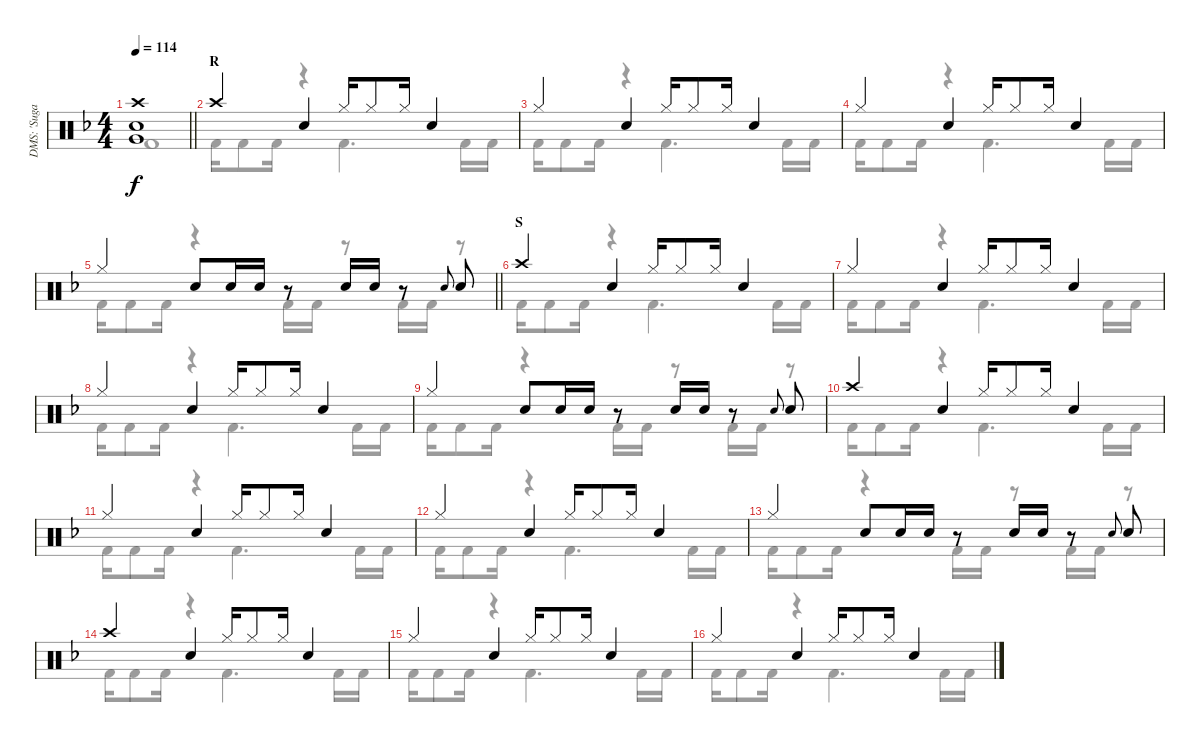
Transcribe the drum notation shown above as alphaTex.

\track ("DMS: 'Sugarfoot' Moffett" "DMS: 'Suga") {instrument percussion}
\staff {score}
\articulation defaults
\voice
\ts (4 4)
\tempo 114
\clef neutral
\barLineRight lightlight
\ks f
("Crash high (hit)" "Snare (hit) 2" "Very Low Tom (hit)").1{dy f} |
\section ("" "R")
"Crash high (hit)".4 "Snare (hit) 2".4 "Hi-Hat (closed)".16 "Hi-Hat (closed)".8 "Hi-Hat (closed)".16 "Snare (hit) 2".4 |
"Hi-Hat (closed)".4 "Snare (hit) 2".4 "Hi-Hat (closed)".16 "Hi-Hat (closed)".8 "Hi-Hat (closed)".16 "Snare (hit) 2".4 |
"Hi-Hat (closed)".4 "Snare (hit) 2".4 "Hi-Hat (closed)".16 "Hi-Hat (closed)".8 "Hi-Hat (closed)".16 "Snare (hit) 2".4 |
\barLineRight lightlight "Hi-Hat (closed)".4 "Snare (hit) 2".8 "Electric Snare (hit)".16 "Electric Snare (hit)".16
r.8 "Electric Snare (hit)".16 "Electric Snare (hit)".16 r.8 "Electric Snare (hit)".8{gr onbeat} "Snare (hit) 2".8 |
\section ("" "S")
"Crash high (hit)".4 "Snare (hit) 2".4 "Hi-Hat (closed)".16 "Hi-Hat (closed)".8 "Hi-Hat (closed)".16 "Snare (hit) 2".4 |
"Hi-Hat (closed)".4 "Snare (hit) 2".4 "Hi-Hat (closed)".16 "Hi-Hat (closed)".8 "Hi-Hat (closed)".16 "Snare (hit) 2".4 |
"Hi-Hat (closed)".4 "Snare (hit) 2".4 "Hi-Hat (closed)".16 "Hi-Hat (closed)".8 "Hi-Hat (closed)".16 "Snare (hit) 2".4 |
"Hi-Hat (closed)".4 "Snare (hit) 2".8 "Electric Snare (hit)".16 "Electric Snare (hit)".16 r.8 "Electric Snare (hit)".16 "Electric Snare (hit)".16 r.8 "Electric Snare (hit)".8{gr onbeat} "Snare (hit) 2".8 |
"Crash high (hit)".4 "Snare (hit) 2".4 "Hi-Hat (closed)".16 "Hi-Hat (closed)".8 "Hi-Hat (closed)".16 "Snare (hit) 2".4 |
"Hi-Hat (closed)".4 "Snare (hit) 2".4 "Hi-Hat (closed)".16 "Hi-Hat (closed)".8 "Hi-Hat (closed)".16 "Snare (hit) 2".4 |
"Hi-Hat (closed)".4 "Snare (hit) 2".4 "Hi-Hat (closed)".16 "Hi-Hat (closed)".8 "Hi-Hat (closed)".16 "Snare (hit) 2".4 |
"Hi-Hat (closed)".4 "Snare (hit) 2".8 "Electric Snare (hit)".16 "Electric Snare (hit)".16 r.8 "Electric Snare (hit)".16 "Electric Snare (hit)".16 r.8 "Electric Snare (hit)".8{gr onbeat} "Snare (hit) 2".8 |
"Crash high (hit)".4 "Snare (hit) 2".4 "Hi-Hat (closed)".16 "Hi-Hat (closed)".8 "Hi-Hat (closed)".16 "Snare (hit) 2".4 |
"Hi-Hat (closed)".4 "Snare (hit) 2".4 "Hi-Hat (closed)".16 "Hi-Hat (closed)".8 "Hi-Hat (closed)".16 "Snare (hit) 2".4 |
"Hi-Hat (closed)".4 "Snare (hit) 2".4 "Hi-Hat (closed)".16 "Hi-Hat (closed)".8 "Hi-Hat (closed)".16 "Snare (hit) 2".4
\voice
\clef neutral
\ottava regular
\simile none
\barLineRight lightlight
\ks f "Kick (hit) 2".1{dy f}
|
"Kick (hit) 2".16 "Kick (hit) 2".8 "Kick (hit) 2".16 r.4 "Kick (hit) 2".4{d} "Kick (hit) 2".16 "Kick (hit) 2".16 |
"Kick (hit) 2".16 "Kick (hit) 2".8 "Kick (hit) 2".16 r.4 "Kick (hit) 2".4{d} "Kick (hit) 2".16 "Kick (hit) 2".16 |
"Kick (hit) 2".16 "Kick (hit) 2".8 "Kick (hit) 2".16 r.4 "Kick (hit) 2".4{d} "Kick (hit) 2".16 "Kick (hit) 2".16 |
\barLineRight lightlight "Kick (hit) 2".16 "Kick (hit) 2".8 "Kick (hit) 2".16
r.4 "Kick (hit) 2".16 "Kick (hit) 2".16 r.8 "Kick (hit) 2".16 "Kick (hit) 2".16 r.8 |
"Kick (hit) 2".16 "Kick (hit) 2".8 "Kick (hit) 2".16 r.4 "Kick (hit) 2".4{d} "Kick (hit) 2".16 "Kick (hit) 2".16 |
"Kick (hit) 2".16 "Kick (hit) 2".8 "Kick (hit) 2".16 r.4 "Kick (hit) 2".4{d} "Kick (hit) 2".16 "Kick (hit) 2".16 |
"Kick (hit) 2".16 "Kick (hit) 2".8 "Kick (hit) 2".16 r.4 "Kick (hit) 2".4{d} "Kick (hit) 2".16 "Kick (hit) 2".16 |
"Kick (hit) 2".16 "Kick (hit) 2".8 "Kick (hit) 2".16 r.4 "Kick (hit) 2".16 "Kick (hit) 2".16 r.8 "Kick (hit) 2".16 "Kick (hit) 2".16 r.8 |
"Kick (hit) 2".16 "Kick (hit) 2".8 "Kick (hit) 2".16 r.4 "Kick (hit) 2".4{d} "Kick (hit) 2".16 "Kick (hit) 2".16 |
"Kick (hit) 2".16 "Kick (hit) 2".8 "Kick (hit) 2".16 r.4 "Kick (hit) 2".4{d} "Kick (hit) 2".16 "Kick (hit) 2".16 |
"Kick (hit) 2".16 "Kick (hit) 2".8 "Kick (hit) 2".16 r.4 "Kick (hit) 2".4{d} "Kick (hit) 2".16 "Kick (hit) 2".16 |
"Kick (hit) 2".16 "Kick (hit) 2".8 "Kick (hit) 2".16 r.4 "Kick (hit) 2".16 "Kick (hit) 2".16 r.8 "Kick (hit) 2".16 "Kick (hit) 2".16 r.8 |
"Kick (hit) 2".16 "Kick (hit) 2".8 "Kick (hit) 2".16 r.4 "Kick (hit) 2".4{d} "Kick (hit) 2".16 "Kick (hit) 2".16 |
"Kick (hit) 2".16 "Kick (hit) 2".8 "Kick (hit) 2".16 r.4 "Kick (hit) 2".4{d} "Kick (hit) 2".16 "Kick (hit) 2".16 |
"Kick (hit) 2".16 "Kick (hit) 2".8 "Kick (hit) 2".16 r.4 "Kick (hit) 2".4{d} "Kick (hit) 2".16 "Kick (hit) 2".16
